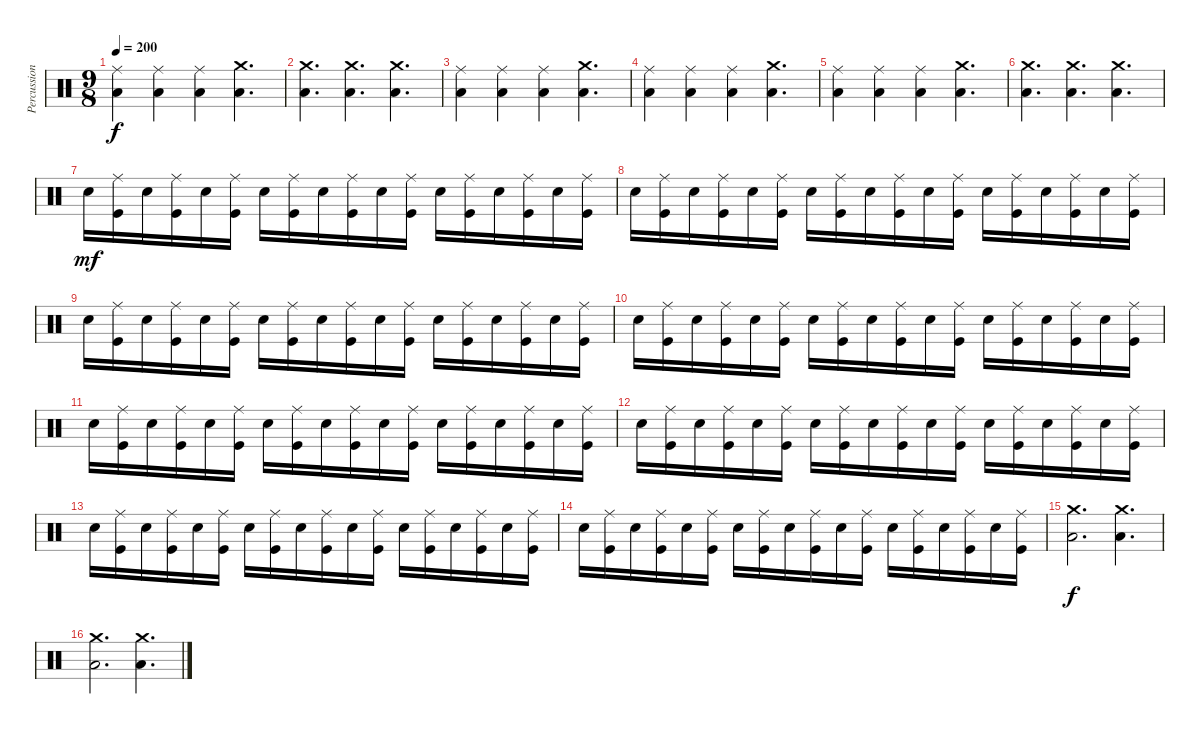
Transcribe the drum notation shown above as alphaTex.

\track ("Percussion" "Percussion") {instrument percussion}
\staff {score}
\articulation defaults
\ts (9 8)
\tempo 200
\clef neutral
\ks c
("Ride (middle)" "Low Floor Tom (hit)").4{dy f} ("Ride (middle)" "Low Floor Tom (hit)").4 ("Ride (middle)" "Low Floor Tom (hit)").4 ("Crash medium (hit)" "Low Floor Tom (hit)").4{d} |
("Crash medium (hit)" "Low Floor Tom (hit)").4{d} ("Crash medium (hit)" "Low Floor Tom (hit)").4{d} ("Crash medium (hit)" "Low Floor Tom (hit)").4{d} |
("Ride (middle)" "Low Floor Tom (hit)").4 ("Ride (middle)" "Low Floor Tom (hit)").4 ("Ride (middle)" "Low Floor Tom (hit)").4 ("Crash medium (hit)" "Low Floor Tom (hit)").4{d} |
("Ride (middle)" "Low Floor Tom (hit)").4 ("Ride (middle)" "Low Floor Tom (hit)").4 ("Ride (middle)" "Low Floor Tom (hit)").4 ("Crash medium (hit)" "Low Floor Tom (hit)").4{d} |
("Ride (middle)" "Low Floor Tom (hit)").4 ("Ride (middle)" "Low Floor Tom (hit)").4 ("Ride (middle)" "Low Floor Tom (hit)").4 ("Crash medium (hit)" "Low Floor Tom (hit)").4{d} |
("Crash medium (hit)" "Low Floor Tom (hit)").4{d} ("Crash medium (hit)" "Low Floor Tom (hit)").4{d} ("Crash medium (hit)" "Low Floor Tom (hit)").4{d} |
"Electric Snare (hit)".16{dy mf} ("Ride (middle)" "Kick (hit)").16 "Electric Snare (hit)".16 ("Ride (middle)" "Kick (hit)").16 "Electric Snare (hit)".16 ("Ride (middle)" "Kick (hit)").16 "Electric Snare (hit)".16 ("Ride (middle)" "Kick (hit)").16 "Electric Snare (hit)".16 ("Ride (middle)" "Kick (hit)").16 "Electric Snare (hit)".16 ("Ride (middle)" "Kick (hit)").16 "Electric Snare (hit)".16 ("Ride (middle)" "Kick (hit)").16 "Electric Snare (hit)".16 ("Ride (middle)" "Kick (hit)").16 "Electric Snare (hit)".16 ("Ride (middle)" "Kick (hit)").16 |
"Electric Snare (hit)".16 ("Ride (middle)" "Kick (hit)").16 "Electric Snare (hit)".16 ("Ride (middle)" "Kick (hit)").16 "Electric Snare (hit)".16 ("Ride (middle)" "Kick (hit)").16 "Electric Snare (hit)".16 ("Ride (middle)" "Kick (hit)").16 "Electric Snare (hit)".16 ("Ride (middle)" "Kick (hit)").16 "Electric Snare (hit)".16 ("Ride (middle)" "Kick (hit)").16 "Electric Snare (hit)".16 ("Ride (middle)" "Kick (hit)").16 "Electric Snare (hit)".16 ("Ride (middle)" "Kick (hit)").16 "Electric Snare (hit)".16 ("Ride (middle)" "Kick (hit)").16 |
"Electric Snare (hit)".16 ("Ride (middle)" "Kick (hit)").16 "Electric Snare (hit)".16 ("Ride (middle)" "Kick (hit)").16 "Electric Snare (hit)".16 ("Ride (middle)" "Kick (hit)").16 "Electric Snare (hit)".16 ("Ride (middle)" "Kick (hit)").16 "Electric Snare (hit)".16 ("Ride (middle)" "Kick (hit)").16 "Electric Snare (hit)".16 ("Ride (middle)" "Kick (hit)").16 "Electric Snare (hit)".16 ("Ride (middle)" "Kick (hit)").16 "Electric Snare (hit)".16 ("Ride (middle)" "Kick (hit)").16 "Electric Snare (hit)".16 ("Ride (middle)" "Kick (hit)").16 |
"Electric Snare (hit)".16 ("Ride (middle)" "Kick (hit)").16 "Electric Snare (hit)".16 ("Ride (middle)" "Kick (hit)").16 "Electric Snare (hit)".16 ("Ride (middle)" "Kick (hit)").16 "Electric Snare (hit)".16 ("Ride (middle)" "Kick (hit)").16 "Electric Snare (hit)".16 ("Ride (middle)" "Kick (hit)").16 "Electric Snare (hit)".16 ("Ride (middle)" "Kick (hit)").16 "Electric Snare (hit)".16 ("Ride (middle)" "Kick (hit)").16 "Electric Snare (hit)".16 ("Ride (middle)" "Kick (hit)").16 "Electric Snare (hit)".16 ("Ride (middle)" "Kick (hit)").16 |
"Electric Snare (hit)".16 ("Ride (middle)" "Kick (hit)").16 "Electric Snare (hit)".16 ("Ride (middle)" "Kick (hit)").16 "Electric Snare (hit)".16 ("Ride (middle)" "Kick (hit)").16 "Electric Snare (hit)".16 ("Ride (middle)" "Kick (hit)").16 "Electric Snare (hit)".16 ("Ride (middle)" "Kick (hit)").16 "Electric Snare (hit)".16 ("Ride (middle)" "Kick (hit)").16 "Electric Snare (hit)".16 ("Ride (middle)" "Kick (hit)").16 "Electric Snare (hit)".16 ("Ride (middle)" "Kick (hit)").16 "Electric Snare (hit)".16 ("Ride (middle)" "Kick (hit)").16 |
"Electric Snare (hit)".16 ("Ride (middle)" "Kick (hit)").16 "Electric Snare (hit)".16 ("Ride (middle)" "Kick (hit)").16 "Electric Snare (hit)".16 ("Ride (middle)" "Kick (hit)").16 "Electric Snare (hit)".16 ("Ride (middle)" "Kick (hit)").16 "Electric Snare (hit)".16 ("Ride (middle)" "Kick (hit)").16 "Electric Snare (hit)".16 ("Ride (middle)" "Kick (hit)").16 "Electric Snare (hit)".16 ("Ride (middle)" "Kick (hit)").16 "Electric Snare (hit)".16 ("Ride (middle)" "Kick (hit)").16 "Electric Snare (hit)".16 ("Ride (middle)" "Kick (hit)").16 |
"Electric Snare (hit)".16 ("Ride (middle)" "Kick (hit)").16 "Electric Snare (hit)".16 ("Ride (middle)" "Kick (hit)").16 "Electric Snare (hit)".16 ("Ride (middle)" "Kick (hit)").16 "Electric Snare (hit)".16 ("Ride (middle)" "Kick (hit)").16 "Electric Snare (hit)".16 ("Ride (middle)" "Kick (hit)").16 "Electric Snare (hit)".16 ("Ride (middle)" "Kick (hit)").16 "Electric Snare (hit)".16 ("Ride (middle)" "Kick (hit)").16 "Electric Snare (hit)".16 ("Ride (middle)" "Kick (hit)").16 "Electric Snare (hit)".16 ("Ride (middle)" "Kick (hit)").16 |
"Electric Snare (hit)".16 ("Ride (middle)" "Kick (hit)").16 "Electric Snare (hit)".16 ("Ride (middle)" "Kick (hit)").16 "Electric Snare (hit)".16 ("Ride (middle)" "Kick (hit)").16 "Electric Snare (hit)".16 ("Ride (middle)" "Kick (hit)").16 "Electric Snare (hit)".16 ("Ride (middle)" "Kick (hit)").16 "Electric Snare (hit)".16 ("Ride (middle)" "Kick (hit)").16 "Electric Snare (hit)".16 ("Ride (middle)" "Kick (hit)").16 "Electric Snare (hit)".16 ("Ride (middle)" "Kick (hit)").16 "Electric Snare (hit)".16 ("Ride (middle)" "Kick (hit)").16 |
("Crash medium (hit)" "Low Floor Tom (hit)").2{d dy f} ("Crash medium (hit)" "Low Floor Tom (hit)").4{d} |
("Crash medium (hit)" "Low Floor Tom (hit)").2{d} ("Crash medium (hit)" "Low Floor Tom (hit)").4{d}
